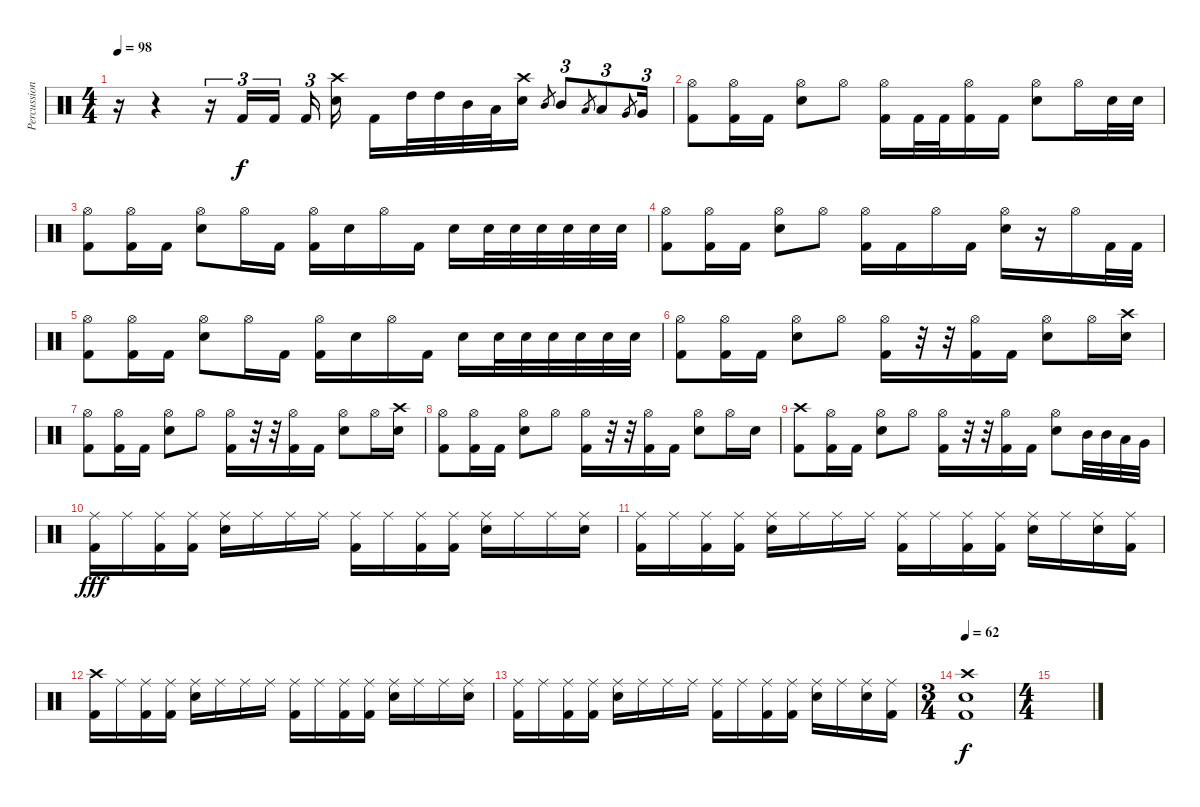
\track ("Percussion" "Percussion") {instrument percussion}
\staff {score}
\articulation defaults
\ts (4 4)
\tempo 98
\clef neutral
\ks c
r.16{dy f} r.4 r.16{tu (3 2)} "Kick (hit) 2".16{tu (3 2)} "Kick (hit) 2".16{tu (3 2)} "Kick (hit) 2".16{tu (3 2)} ("Crash high (hit)" "Electric Snare (hit)").16 "Kick (hit) 2".16 "High Tom (hit)".32 "High Tom (hit)".32 "Mid Tom (hit)".32 "Low Tom (hit)".32 ("Crash high (hit)" "Electric Snare (hit)").16 "Mid Tom (hit)".8{gr} "Mid Tom (hit)".8{tu (3 2)} "Low Tom (hit)".8{gr} "Low Tom (hit)".8{tu (3 2)} "Very Low Tom (hit)".8{gr} "Very Low Tom (hit)".16{tu (3 2)} |
("Hi-Hat (open)" "Kick (hit) 2").8 ("Hi-Hat (open)" "Kick (hit) 2").16 "Kick (hit) 2".16 ("Hi-Hat (open)" "Electric Snare (hit)").8 "Hi-Hat (open)".8 ("Hi-Hat (open)" "Kick (hit) 2").16 "Kick (hit) 2".32 "Kick (hit) 2".32 ("Hi-Hat (open)" "Kick (hit) 2").16 "Kick (hit) 2".16 ("Hi-Hat (open)" "Electric Snare (hit)").8 "Hi-Hat (open)".16 "Electric Snare (hit)".32 "Electric Snare (hit)".32 |
("Hi-Hat (open)" "Kick (hit) 2").8 ("Hi-Hat (open)" "Kick (hit) 2").16 "Kick (hit) 2".16 ("Hi-Hat (open)" "Electric Snare (hit)").8 "Hi-Hat (open)".16 "Kick (hit) 2".16 ("Hi-Hat (open)" "Kick (hit) 2").16 "Electric Snare (hit)".16 "Hi-Hat (open)".16 "Kick (hit) 2".16 "Electric Snare (hit)".16 "Electric Snare (hit)".32 "Electric Snare (hit)".32 "Electric Snare (hit)".32 "Electric Snare (hit)".32 "Electric Snare (hit)".32 "Electric Snare (hit)".32 |
("Hi-Hat (open)" "Kick (hit) 2").8 ("Hi-Hat (open)" "Kick (hit) 2").16 "Kick (hit) 2".16 ("Hi-Hat (open)" "Electric Snare (hit)").8 "Hi-Hat (open)".8 ("Hi-Hat (open)" "Kick (hit) 2").16 "Kick (hit) 2".16 "Hi-Hat (open)".16 "Kick (hit) 2".16 ("Hi-Hat (open)" "Electric Snare (hit)").16 r.16 "Hi-Hat (open)".16 "Kick (hit) 2".32 "Kick (hit) 2".32 |
("Hi-Hat (open)" "Kick (hit) 2").8 ("Hi-Hat (open)" "Kick (hit) 2").16 "Kick (hit) 2".16 ("Hi-Hat (open)" "Electric Snare (hit)").8 "Hi-Hat (open)".16 "Kick (hit) 2".16 ("Hi-Hat (open)" "Kick (hit) 2").16 "Electric Snare (hit)".16 "Hi-Hat (open)".16 "Kick (hit) 2".16 "Electric Snare (hit)".16 "Electric Snare (hit)".32 "Electric Snare (hit)".32 "Electric Snare (hit)".32 "Electric Snare (hit)".32 "Electric Snare (hit)".32 "Electric Snare (hit)".32 |
("Hi-Hat (open)" "Kick (hit) 2").8 ("Hi-Hat (open)" "Kick (hit) 2").16 "Kick (hit) 2".16 ("Hi-Hat (open)" "Electric Snare (hit)").8 "Hi-Hat (open)".8 ("Hi-Hat (open)" "Kick (hit) 2").16 r.32 r.32 ("Hi-Hat (open)" "Kick (hit) 2").16 "Kick (hit) 2".16 ("Hi-Hat (open)" "Electric Snare (hit)").8 "Hi-Hat (open)".16 ("Crash high (hit)" "Electric Snare (hit)").16 |
("Hi-Hat (open)" "Kick (hit) 2").8 ("Hi-Hat (open)" "Kick (hit) 2").16 "Kick (hit) 2".16 ("Hi-Hat (open)" "Electric Snare (hit)").8 "Hi-Hat (open)".8 ("Hi-Hat (open)" "Kick (hit) 2").16 r.32 r.32 ("Hi-Hat (open)" "Kick (hit) 2").16 "Kick (hit) 2".16 ("Hi-Hat (open)" "Electric Snare (hit)").8 "Hi-Hat (open)".16 ("Crash high (hit)" "Electric Snare (hit)").16 |
("Hi-Hat (open)" "Kick (hit) 2").8 ("Hi-Hat (open)" "Kick (hit) 2").16 "Kick (hit) 2".16 ("Hi-Hat (open)" "Electric Snare (hit)").8 "Hi-Hat (open)".8 ("Hi-Hat (open)" "Kick (hit) 2").16 r.32 r.32 ("Hi-Hat (open)" "Kick (hit) 2").16 "Kick (hit) 2".16 ("Hi-Hat (open)" "Electric Snare (hit)").8 "Hi-Hat (open)".16 "Electric Snare (hit)".16 |
("Crash high (hit)" "Kick (hit) 2").8 ("Hi-Hat (open)" "Kick (hit) 2").16 "Kick (hit) 2".16 ("Hi-Hat (open)" "Electric Snare (hit)").8 "Hi-Hat (open)".8 ("Hi-Hat (open)" "Kick (hit) 2").16 r.32 r.32 ("Hi-Hat (open)" "Kick (hit) 2").16 "Kick (hit) 2".16 ("Hi-Hat (open)" "Electric Snare (hit)").8 "Mid Tom (hit)".32 "Mid Tom (hit)".32 "Low Tom (hit)".32 "Very Low Tom (hit)".32 |
("Ride (middle)" "Kick (hit) 2").16{dy fff} "Ride (middle)".16 ("Ride (middle)" "Kick (hit) 2").16 ("Ride (middle)" "Kick (hit) 2").16 ("Ride (middle)" "Electric Snare (hit)").16 "Ride (middle)".16 "Ride (middle)".16 "Ride (middle)".16 ("Ride (middle)" "Kick (hit) 2").16 "Ride (middle)".16 ("Ride (middle)" "Kick (hit) 2").16 ("Ride (middle)" "Kick (hit) 2").16 ("Ride (middle)" "Electric Snare (hit)").16 "Ride (middle)".16 "Ride (middle)".16 ("Ride (middle)" "Electric Snare (hit)").16 |
("Ride (middle)" "Kick (hit) 2").16 "Ride (middle)".16 ("Ride (middle)" "Kick (hit) 2").16 ("Ride (middle)" "Kick (hit) 2").16 ("Ride (middle)" "Electric Snare (hit)").16 "Ride (middle)".16 "Ride (middle)".16 "Ride (middle)".16 ("Ride (middle)" "Kick (hit) 2").16 "Ride (middle)".16 ("Ride (middle)" "Kick (hit) 2").16 ("Ride (middle)" "Kick (hit) 2").16 ("Ride (middle)" "Electric Snare (hit)").16 "Ride (middle)".16 ("Ride (middle)" "Electric Snare (hit)").16 ("Ride (middle)" "Kick (hit) 2").16 |
("Crash high (hit)" "Kick (hit) 2").16 "Ride (middle)".16 ("Ride (middle)" "Kick (hit) 2").16 ("Ride (middle)" "Kick (hit) 2").16 ("Ride (middle)" "Electric Snare (hit)").16 "Ride (middle)".16 "Ride (middle)".16 "Ride (middle)".16 ("Ride (middle)" "Kick (hit) 2").16 "Ride (middle)".16 ("Ride (middle)" "Kick (hit) 2").16 ("Ride (middle)" "Kick (hit) 2").16 ("Ride (middle)" "Electric Snare (hit)").16 "Ride (middle)".16 "Ride (middle)".16 ("Ride (middle)" "Electric Snare (hit)").16 |
("Ride (middle)" "Kick (hit) 2").16 "Ride (middle)".16 ("Ride (middle)" "Kick (hit) 2").16 ("Ride (middle)" "Kick (hit) 2").16 ("Ride (middle)" "Electric Snare (hit)").16 "Ride (middle)".16 "Ride (middle)".16 "Ride (middle)".16 ("Ride (middle)" "Kick (hit) 2").16 "Ride (middle)".16 ("Ride (middle)" "Kick (hit) 2").16 ("Ride (middle)" "Kick (hit) 2").16 ("Ride (middle)" "Electric Snare (hit)").16 "Ride (middle)".16 ("Ride (middle)" "Electric Snare (hit)").16 ("Ride (middle)" "Kick (hit) 2").16 |
\ts (3 4)
\tempo 62
("Crash high (hit)" "Electric Snare (hit)" "Kick (hit) 2").1{dy f} |
\ts (4 4)
